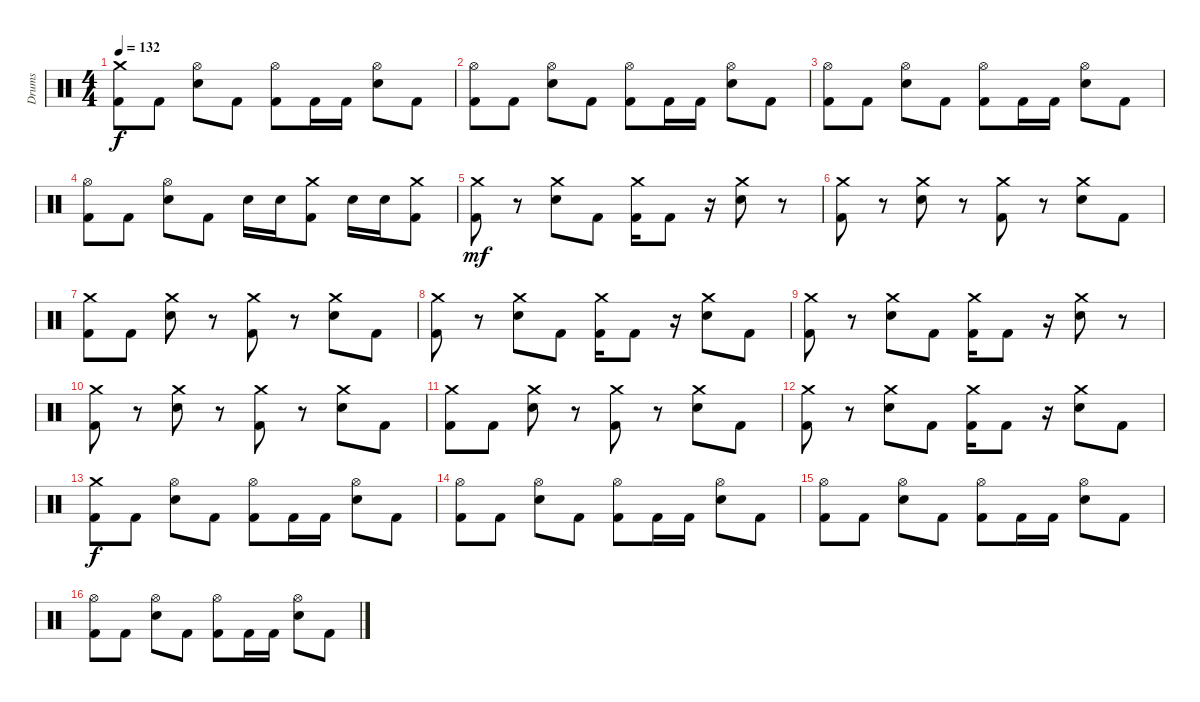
\track ("Drums" "Drums") {instrument percussion}
\staff {score}
\articulation defaults
\ts (4 4)
\tempo 132
\clef neutral
\ks c
("Crash medium (hit)" "Kick (hit) 2").8{dy f} "Kick (hit) 2".8 ("Hi-Hat (open)" "Electric Snare (hit)").8 "Kick (hit) 2".8 ("Hi-Hat (open)" "Kick (hit) 2").8 "Kick (hit) 2".16 "Kick (hit) 2".16 ("Hi-Hat (open)" "Electric Snare (hit)").8 "Kick (hit) 2".8 |
("Hi-Hat (open)" "Kick (hit) 2").8 "Kick (hit) 2".8 ("Hi-Hat (open)" "Electric Snare (hit)").8 "Kick (hit) 2".8 ("Hi-Hat (open)" "Kick (hit) 2").8 "Kick (hit) 2".16 "Kick (hit) 2".16 ("Hi-Hat (open)" "Electric Snare (hit)").8 "Kick (hit) 2".8 |
("Hi-Hat (open)" "Kick (hit) 2").8 "Kick (hit) 2".8 ("Hi-Hat (open)" "Electric Snare (hit)").8 "Kick (hit) 2".8 ("Hi-Hat (open)" "Kick (hit) 2").8 "Kick (hit) 2".16 "Kick (hit) 2".16 ("Hi-Hat (open)" "Electric Snare (hit)").8 "Kick (hit) 2".8 |
("Hi-Hat (open)" "Kick (hit) 2").8 "Kick (hit) 2".8 ("Hi-Hat (open)" "Electric Snare (hit)").8 "Kick (hit) 2".8 "Electric Snare (hit)".16 "Electric Snare (hit)".16 ("Crash medium (hit)" "Kick (hit) 2").8 "Electric Snare (hit)".16 "Electric Snare (hit)".16 ("Crash medium (hit)" "Kick (hit) 2").8 |
("Crash medium (hit)" "Kick (hit) 2").8{dy mf} r.8 ("Crash medium (hit)" "Electric Snare (hit)").8 "Kick (hit) 2".8 ("Crash medium (hit)" "Kick (hit) 2").16 "Kick (hit) 2".8 r.16 ("Crash medium (hit)" "Electric Snare (hit)").8 r.8 |
("Crash medium (hit)" "Kick (hit) 2").8 r.8 ("Crash medium (hit)" "Electric Snare (hit)").8 r.8 ("Crash medium (hit)" "Kick (hit) 2").8 r.8 ("Crash medium (hit)" "Electric Snare (hit)").8 "Kick (hit) 2".8 |
("Crash medium (hit)" "Kick (hit) 2").8 "Kick (hit) 2".8 ("Crash medium (hit)" "Electric Snare (hit)").8 r.8 ("Crash medium (hit)" "Kick (hit) 2").8 r.8 ("Crash medium (hit)" "Electric Snare (hit)").8 "Kick (hit) 2".8 |
("Crash medium (hit)" "Kick (hit) 2").8 r.8 ("Crash medium (hit)" "Electric Snare (hit)").8 "Kick (hit) 2".8 ("Crash medium (hit)" "Kick (hit) 2").16 "Kick (hit) 2".8 r.16 ("Crash medium (hit)" "Electric Snare (hit)").8 "Kick (hit) 2".8 |
("Crash medium (hit)" "Kick (hit) 2").8 r.8 ("Crash medium (hit)" "Electric Snare (hit)").8 "Kick (hit) 2".8 ("Crash medium (hit)" "Kick (hit) 2").16 "Kick (hit) 2".8 r.16 ("Crash medium (hit)" "Electric Snare (hit)").8 r.8 |
("Crash medium (hit)" "Kick (hit) 2").8 r.8 ("Crash medium (hit)" "Electric Snare (hit)").8 r.8 ("Crash medium (hit)" "Kick (hit) 2").8 r.8 ("Crash medium (hit)" "Electric Snare (hit)").8 "Kick (hit) 2".8 |
("Crash medium (hit)" "Kick (hit) 2").8 "Kick (hit) 2".8 ("Crash medium (hit)" "Electric Snare (hit)").8 r.8 ("Crash medium (hit)" "Kick (hit) 2").8 r.8 ("Crash medium (hit)" "Electric Snare (hit)").8 "Kick (hit) 2".8 |
("Crash medium (hit)" "Kick (hit) 2").8 r.8 ("Crash medium (hit)" "Electric Snare (hit)").8 "Kick (hit) 2".8 ("Crash medium (hit)" "Kick (hit) 2").16 "Kick (hit) 2".8 r.16 ("Crash medium (hit)" "Electric Snare (hit)").8 "Kick (hit) 2".8 |
("Crash medium (hit)" "Kick (hit) 2").8{dy f} "Kick (hit) 2".8 ("Hi-Hat (open)" "Electric Snare (hit)").8 "Kick (hit) 2".8 ("Hi-Hat (open)" "Kick (hit) 2").8 "Kick (hit) 2".16 "Kick (hit) 2".16 ("Hi-Hat (open)" "Electric Snare (hit)").8 "Kick (hit) 2".8 |
("Hi-Hat (open)" "Kick (hit) 2").8 "Kick (hit) 2".8 ("Hi-Hat (open)" "Electric Snare (hit)").8 "Kick (hit) 2".8 ("Hi-Hat (open)" "Kick (hit) 2").8 "Kick (hit) 2".16 "Kick (hit) 2".16 ("Hi-Hat (open)" "Electric Snare (hit)").8 "Kick (hit) 2".8 |
("Hi-Hat (open)" "Kick (hit) 2").8 "Kick (hit) 2".8 ("Hi-Hat (open)" "Electric Snare (hit)").8 "Kick (hit) 2".8 ("Hi-Hat (open)" "Kick (hit) 2").8 "Kick (hit) 2".16 "Kick (hit) 2".16 ("Hi-Hat (open)" "Electric Snare (hit)").8 "Kick (hit) 2".8 |
("Hi-Hat (open)" "Kick (hit) 2").8 "Kick (hit) 2".8 ("Hi-Hat (open)" "Electric Snare (hit)").8 "Kick (hit) 2".8 ("Hi-Hat (open)" "Kick (hit) 2").8 "Kick (hit) 2".16 "Kick (hit) 2".16 ("Hi-Hat (open)" "Electric Snare (hit)").8 "Kick (hit) 2".8
